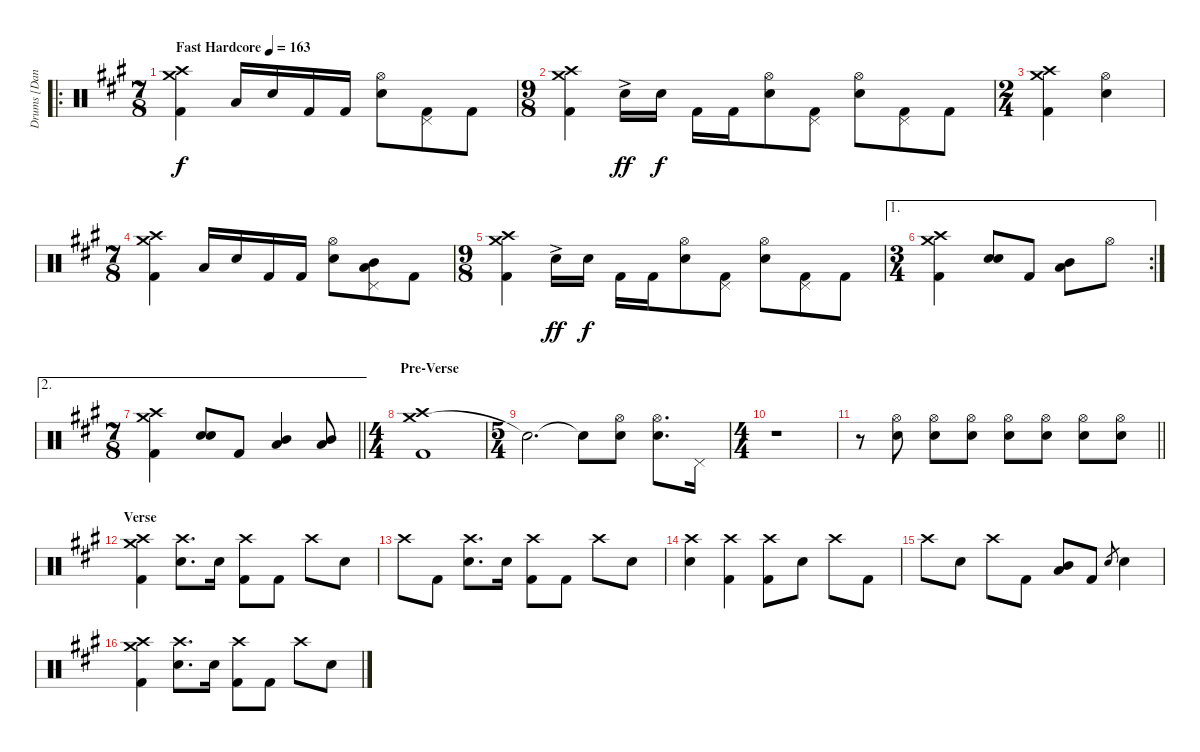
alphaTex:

\track ("Drums [Daniel Davison]" "Drums [Dan") {instrument percussion}
\staff {score}
\articulation defaults
\ro
\ts (7 8)
\tempo (163 "Fast Hardcore")
\clef neutral
\ks a
("Crash medium (hit)" "Crash high (hit)" "Kick (hit) 2").4{dy f} "Low Tom (hit)".16 "Electric Snare (hit)".16 "Kick (hit) 2".16 "Kick (hit) 2".16 ("Hi-Hat (open)" "Electric Snare (hit)").8 ("Pedal Hi-Hat (hit)" "Kick (hit) 2").8 "Kick (hit) 2".8 |
\ts (9 8)
("Crash medium (hit)" "Crash high (hit)" "Kick (hit) 2").4 "Electric Snare (hit)"{ac}.16{dy ff} "Electric Snare (hit)".16{dy f} "Kick (hit) 2".16 "Kick (hit) 2".16 ("Hi-Hat (open)" "Electric Snare (hit)").8 ("Pedal Hi-Hat (hit)" "Kick (hit) 2").8 ("Hi-Hat (open)" "Electric Snare (hit)").8 ("Pedal Hi-Hat (hit)" "Kick (hit) 2").8 "Kick (hit) 2".8 |
\ts (2 4)
("Crash medium (hit)" "Crash high (hit)" "Kick (hit) 2").4 ("Hi-Hat (open)" "Electric Snare (hit)").4 |
\ts (7 8)
("Crash medium (hit)" "Crash high (hit)" "Kick (hit) 2").4 "Low Tom (hit)".16 "Electric Snare (hit)".16 "Kick (hit) 2".16 "Kick (hit) 2".16 ("Hi-Hat (open)" "Electric Snare (hit)").8 ("Pedal Hi-Hat (hit)" "Mid Tom (hit)" "Low Tom (hit)").8 "Kick (hit) 2".8 |
\ts (9 8)
("Crash medium (hit)" "Crash high (hit)" "Kick (hit) 2").4 "Electric Snare (hit)"{ac}.16{dy ff} "Electric Snare (hit)".16{dy f} "Kick (hit) 2".16 "Kick (hit) 2".16 ("Hi-Hat (open)" "Electric Snare (hit)").8 ("Pedal Hi-Hat (hit)" "Kick (hit) 2").8 ("Hi-Hat (open)" "Electric Snare (hit)").8 ("Pedal Hi-Hat (hit)" "Kick (hit) 2").8 "Kick (hit) 2".8 |
\ae 1
\rc 2
\ts (3 4)
("Crash medium (hit)" "Crash high (hit)" "Kick (hit) 2").4 ("Electric Snare (hit)" "Electric Snare (hit)").8{bu 60} "Kick (hit) 2".8 ("Mid Tom (hit)" "Low Tom (hit)").8 "Hi-Hat (open)".8 |
\ae 2
\ts (7 8)
\barLineRight lightlight
("Crash medium (hit)" "Crash high (hit)" "Kick (hit) 2").4 ("Electric Snare (hit)" "Electric Snare (hit)").8{bu 60} "Kick (hit) 2".8 ("Mid Tom (hit)" "Low Tom (hit)").4 ("Mid Tom (hit)" "Low Tom (hit)").8 |
\ts (4 4)
\section ("" "Pre-Verse")
("Crash medium (hit)" "Crash high (hit)" "Kick (hit) 2").1 |
\ts (5 4)
"Snare (hit)"{t}.2{d} "Snare (hit)"{t}.8 ("Hi-Hat (open)" "Electric Snare (hit)").8 ("Hi-Hat (open)" "Electric Snare (hit)").8{d} "Pedal Hi-Hat (hit)".16 |
\ts (4 4)
r.1 |
\barLineRight lightlight
r.8{volume 8} ("Hi-Hat (open)" "Electric Snare (hit)").8{volume 14} ("Hi-Hat (open)" "Electric Snare (hit)").8 ("Hi-Hat (open)" "Electric Snare (hit)").8 ("Hi-Hat (open)" "Electric Snare (hit)").8 ("Hi-Hat (open)" "Electric Snare (hit)").8 ("Hi-Hat (open)" "Electric Snare (hit)").8 ("Hi-Hat (open)" "Electric Snare (hit)").8 |
\section ("" "Verse")
("Crash medium (hit)" "Crash high (hit)" "Kick (hit) 2").4 ("Crash high (hit)" "Electric Snare (hit)").8{d} "Electric Snare (hit)".16 ("Crash high (hit)" "Kick (hit) 2").8 "Kick (hit) 2".8 "Crash high (hit)".8 "Electric Snare (hit)".8 |
"Crash high (hit)".8 "Kick (hit) 2".8 ("Crash high (hit)" "Electric Snare (hit)").8{d} "Electric Snare (hit)".16 ("Crash high (hit)" "Kick (hit) 2").8 "Kick (hit) 2".8 "Crash high (hit)".8 "Electric Snare (hit)".8 |
("Crash high (hit)" "Electric Snare (hit)").4 ("Crash high (hit)" "Kick (hit) 2").4 ("Crash high (hit)" "Kick (hit) 2").8 "Electric Snare (hit)".8 "Crash high (hit)".8 "Kick (hit) 2".8 |
"Crash high (hit)".8 "Electric Snare (hit)".8 "Crash high (hit)".8 "Kick (hit) 2".8 ("Mid Tom (hit)" "Low Tom (hit)").8 "Kick (hit) 2".8 "Electric Snare (hit)".8{gr} "Electric Snare (hit)".4 |
("Crash medium (hit)" "Crash high (hit)" "Kick (hit) 2").4 ("Crash high (hit)" "Electric Snare (hit)").8{d} "Electric Snare (hit)".16 ("Crash high (hit)" "Kick (hit) 2").8 "Kick (hit) 2".8 "Crash high (hit)".8 "Electric Snare (hit)".8
